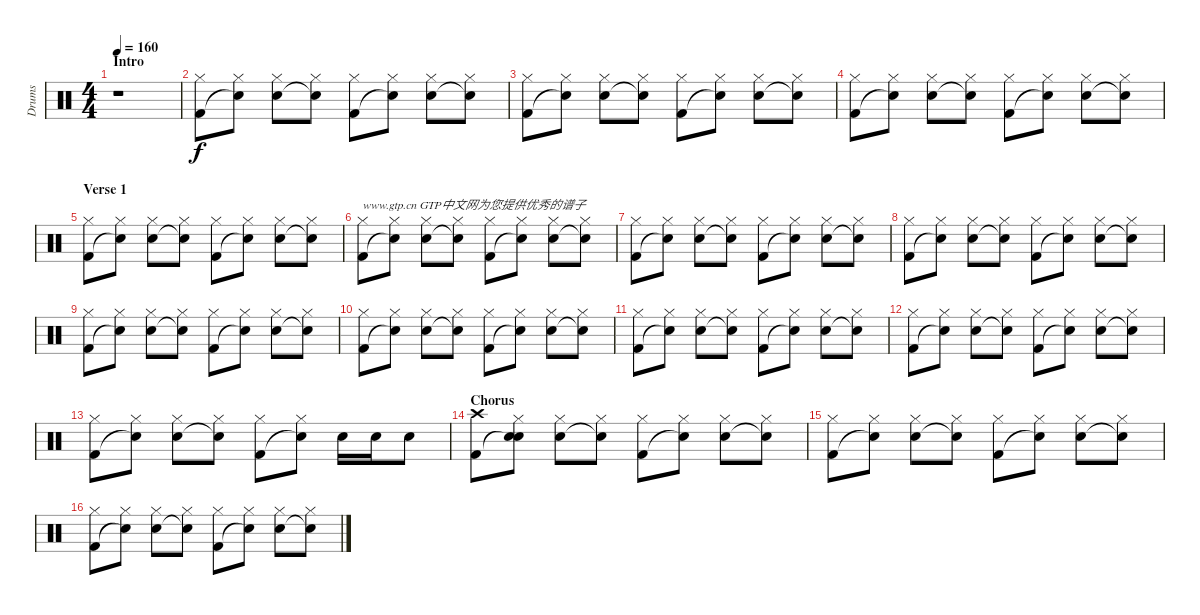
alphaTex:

\track ("Drums" "Drums") {instrument percussion}
\staff {score}
\articulation defaults
\ts (4 4)
\section ("" "Intro")
\tempo 160
\clef neutral
\ks c
r.1{dy f} |
("Kick (hit) 2" "Hi-Hat (closed)").8 ("Snare (hit)"{t} "Hi-Hat (closed)").8 ("Snare (hit) 2" "Hi-Hat (closed)").8 ("Snare (hit)"{t} "Hi-Hat (closed)").8 ("Kick (hit) 2" "Hi-Hat (closed)").8 ("Snare (hit)"{t} "Hi-Hat (closed)").8 ("Snare (hit) 2" "Hi-Hat (closed)").8 ("Snare (hit)"{t} "Hi-Hat (closed)").8 |
("Kick (hit) 2" "Hi-Hat (closed)").8 ("Snare (hit)"{t} "Hi-Hat (closed)").8 ("Snare (hit) 2" "Hi-Hat (closed)").8 ("Snare (hit)"{t} "Hi-Hat (closed)").8 ("Kick (hit) 2" "Hi-Hat (closed)").8 ("Snare (hit)"{t} "Hi-Hat (closed)").8 ("Snare (hit) 2" "Hi-Hat (closed)").8 ("Snare (hit)"{t} "Hi-Hat (closed)").8 |
("Kick (hit) 2" "Hi-Hat (closed)").8 ("Snare (hit)"{t} "Hi-Hat (closed)").8 ("Snare (hit) 2" "Hi-Hat (closed)").8 ("Snare (hit)"{t} "Hi-Hat (closed)").8 ("Kick (hit) 2" "Hi-Hat (closed)").8 ("Snare (hit)"{t} "Hi-Hat (closed)").8 ("Snare (hit) 2" "Hi-Hat (closed)").8 ("Snare (hit)"{t} "Hi-Hat (closed)").8 |
\section ("" "Verse 1")
("Kick (hit) 2" "Hi-Hat (closed)").8 ("Snare (hit)"{t} "Hi-Hat (closed)").8 ("Snare (hit) 2" "Hi-Hat (closed)").8 ("Snare (hit)"{t} "Hi-Hat (closed)").8 ("Kick (hit) 2" "Hi-Hat (closed)").8 ("Snare (hit)"{t} "Hi-Hat (closed)").8 ("Snare (hit) 2" "Hi-Hat (closed)").8 ("Snare (hit)"{t} "Hi-Hat (closed)").8 |
("Kick (hit) 2" "Hi-Hat (closed)").8{txt "www.gtp.cn GTP中文网为您提供优秀的谱子"} ("Snare (hit)"{t} "Hi-Hat (closed)").8 ("Snare (hit) 2" "Hi-Hat (closed)").8 ("Snare (hit)"{t} "Hi-Hat (closed)").8 ("Kick (hit) 2" "Hi-Hat (closed)").8 ("Snare (hit)"{t} "Hi-Hat (closed)").8 ("Snare (hit) 2" "Hi-Hat (closed)").8 ("Snare (hit)"{t} "Hi-Hat (closed)").8 |
("Kick (hit) 2" "Hi-Hat (closed)").8 ("Snare (hit)"{t} "Hi-Hat (closed)").8 ("Snare (hit) 2" "Hi-Hat (closed)").8 ("Snare (hit)"{t} "Hi-Hat (closed)").8 ("Kick (hit) 2" "Hi-Hat (closed)").8 ("Snare (hit)"{t} "Hi-Hat (closed)").8 ("Snare (hit) 2" "Hi-Hat (closed)").8 ("Snare (hit)"{t} "Hi-Hat (closed)").8 |
("Kick (hit) 2" "Hi-Hat (closed)").8 ("Snare (hit)"{t} "Hi-Hat (closed)").8 ("Snare (hit) 2" "Hi-Hat (closed)").8 ("Snare (hit)"{t} "Hi-Hat (closed)").8 ("Kick (hit) 2" "Hi-Hat (closed)").8 ("Snare (hit)"{t} "Hi-Hat (closed)").8 ("Snare (hit) 2" "Hi-Hat (closed)").8 ("Snare (hit)"{t} "Hi-Hat (closed)").8 |
("Kick (hit) 2" "Hi-Hat (closed)").8 ("Snare (hit)"{t} "Hi-Hat (closed)").8 ("Snare (hit) 2" "Hi-Hat (closed)").8 ("Snare (hit)"{t} "Hi-Hat (closed)").8 ("Kick (hit) 2" "Hi-Hat (closed)").8 ("Snare (hit)"{t} "Hi-Hat (closed)").8 ("Snare (hit) 2" "Hi-Hat (closed)").8 ("Snare (hit)"{t} "Hi-Hat (closed)").8 |
("Kick (hit) 2" "Hi-Hat (closed)").8 ("Snare (hit)"{t} "Hi-Hat (closed)").8 ("Snare (hit) 2" "Hi-Hat (closed)").8 ("Snare (hit)"{t} "Hi-Hat (closed)").8 ("Kick (hit) 2" "Hi-Hat (closed)").8 ("Snare (hit)"{t} "Hi-Hat (closed)").8 ("Snare (hit) 2" "Hi-Hat (closed)").8 ("Snare (hit)"{t} "Hi-Hat (closed)").8 |
("Kick (hit) 2" "Hi-Hat (closed)").8 ("Snare (hit)"{t} "Hi-Hat (closed)").8 ("Snare (hit) 2" "Hi-Hat (closed)").8 ("Snare (hit)"{t} "Hi-Hat (closed)").8 ("Kick (hit) 2" "Hi-Hat (closed)").8 ("Snare (hit)"{t} "Hi-Hat (closed)").8 ("Snare (hit) 2" "Hi-Hat (closed)").8 ("Snare (hit)"{t} "Hi-Hat (closed)").8 |
("Kick (hit) 2" "Hi-Hat (closed)").8 ("Snare (hit)"{t} "Hi-Hat (closed)").8 ("Snare (hit) 2" "Hi-Hat (closed)").8 ("Snare (hit)"{t} "Hi-Hat (closed)").8 ("Kick (hit) 2" "Hi-Hat (closed)").8 ("Snare (hit)"{t} "Hi-Hat (closed)").8 ("Snare (hit) 2" "Hi-Hat (closed)").8 ("Snare (hit)"{t} "Hi-Hat (closed)").8 |
("Kick (hit) 2" "Hi-Hat (closed)").8 ("Snare (hit)"{t} "Hi-Hat (closed)").8 ("Snare (hit) 2" "Hi-Hat (closed)").8 ("Snare (hit)"{t} "Hi-Hat (closed)").8 ("Kick (hit) 2" "Hi-Hat (closed)").8 ("Snare (hit)"{t} "Hi-Hat (closed)").8 "Snare (hit) 2".16 "Snare (hit) 2".16 "Snare (hit) 2".8 |
\section ("" "Chorus")
("Kick (hit) 2" "Crash high (hit)").8 ("Snare (hit)"{t} "Hi-Hat (closed)" "Snare (hit)").8 ("Snare (hit) 2" "Hi-Hat (closed)").8 ("Snare (hit)"{t} "Hi-Hat (closed)").8 ("Kick (hit) 2" "Hi-Hat (closed)").8 ("Snare (hit)"{t} "Hi-Hat (closed)").8 ("Snare (hit) 2" "Hi-Hat (closed)").8 ("Snare (hit)"{t} "Hi-Hat (closed)").8 |
("Kick (hit) 2" "Hi-Hat (closed)").8 ("Snare (hit)"{t} "Hi-Hat (closed)").8 ("Snare (hit) 2" "Hi-Hat (closed)").8 ("Snare (hit)"{t} "Hi-Hat (closed)").8 ("Kick (hit) 2" "Hi-Hat (closed)").8 ("Snare (hit)"{t} "Hi-Hat (closed)").8 ("Snare (hit) 2" "Hi-Hat (closed)").8 ("Snare (hit)"{t} "Hi-Hat (closed)").8 |
("Kick (hit) 2" "Hi-Hat (closed)").8 ("Snare (hit)"{t} "Hi-Hat (closed)").8 ("Snare (hit) 2" "Hi-Hat (closed)").8 ("Snare (hit)"{t} "Hi-Hat (closed)").8 ("Kick (hit) 2" "Hi-Hat (closed)").8 ("Snare (hit)"{t} "Hi-Hat (closed)").8 ("Snare (hit) 2" "Hi-Hat (closed)").8 ("Snare (hit)"{t} "Hi-Hat (closed)").8
